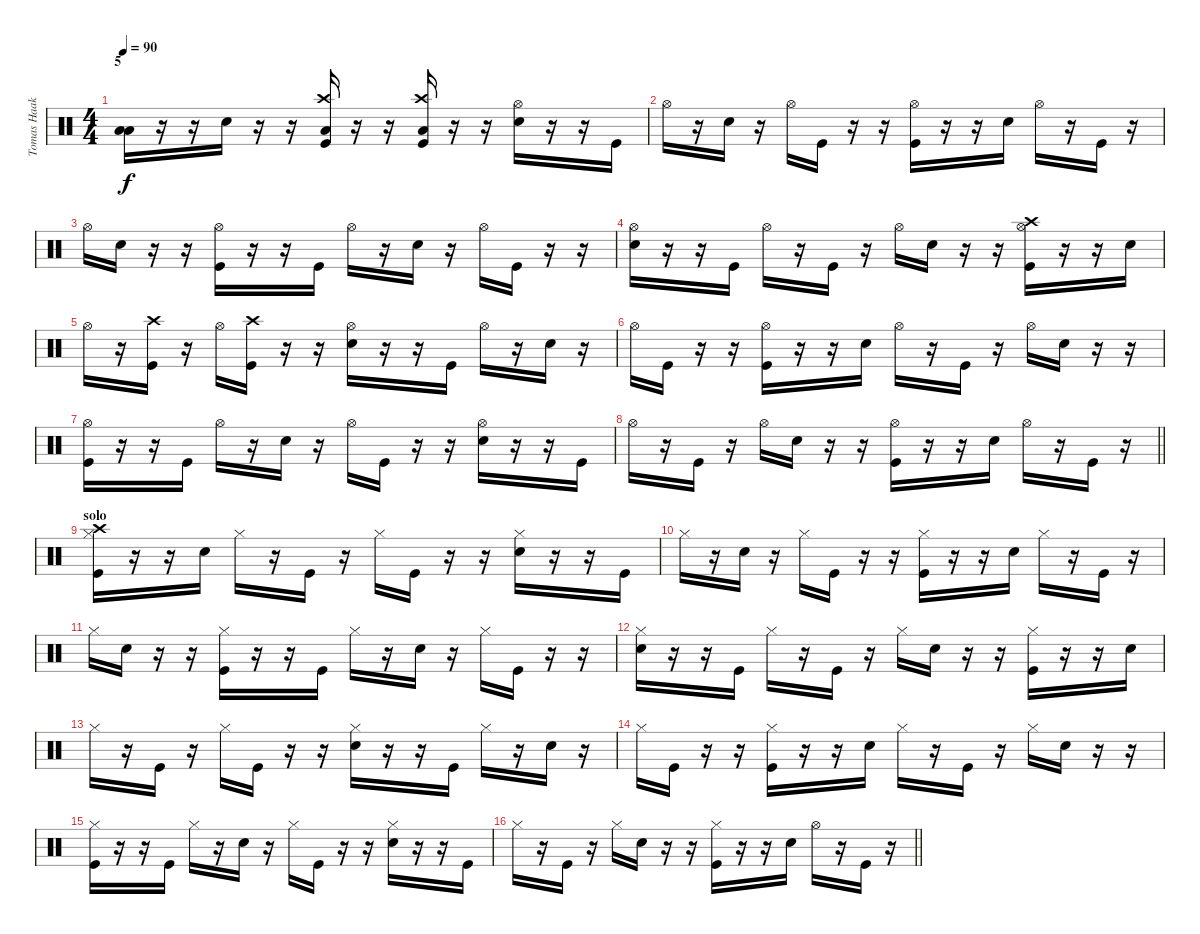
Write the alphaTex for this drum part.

\track ("Tomas Haake" "Tomas Haak") {instrument percussion}
\staff {score}
\articulation defaults
\ts (4 4)
\section ("" "5")
\tempo 90
\clef neutral
\ks c
("Low Tom (hit)" "Low Floor Tom (hit)").16{dy f} r.16 r.16 "Electric Snare (hit)".16 r.16 r.16 ("Crash high (hit)" "Low Floor Tom (hit)" "Kick (hit)").16 r.16 r.16 ("Crash high (hit)" "Low Floor Tom (hit)" "Kick (hit)").16 r.16 r.16 ("Hi-Hat (open)" "Electric Snare (hit)").16 r.16 r.16 "Kick (hit)".16 |
"Hi-Hat (open)".16 r.16 "Electric Snare (hit)".16 r.16 "Hi-Hat (open)".16 "Kick (hit)".16 r.16 r.16 ("Hi-Hat (open)" "Kick (hit)").16 r.16 r.16 "Electric Snare (hit)".16 "Hi-Hat (open)".16 r.16 "Kick (hit)".16 r.16 |
"Hi-Hat (open)".16 "Electric Snare (hit)".16 r.16 r.16 ("Hi-Hat (open)" "Kick (hit)").16 r.16 r.16 "Kick (hit)".16 "Hi-Hat (open)".16 r.16 "Electric Snare (hit)".16 r.16 "Hi-Hat (open)".16 "Kick (hit)".16 r.16 r.16 |
("Hi-Hat (open)" "Electric Snare (hit)").16 r.16 r.16 "Kick (hit)".16 "Hi-Hat (open)".16 r.16 "Kick (hit)".16 r.16 "Hi-Hat (open)".16 "Electric Snare (hit)".16 r.16 r.16 ("Crash high (hit)" "Hi-Hat (open)" "Kick (hit)").16 r.16 r.16 "Electric Snare (hit)".16 |
"Hi-Hat (open)".16 r.16 ("Crash high (hit)" "Kick (hit)").16 r.16 "Hi-Hat (open)".16 ("Crash high (hit)" "Kick (hit)").16 r.16 r.16 ("Hi-Hat (open)" "Electric Snare (hit)").16 r.16 r.16 "Kick (hit)".16 "Hi-Hat (open)".16 r.16 "Electric Snare (hit)".16 r.16 |
"Hi-Hat (open)".16 "Kick (hit)".16 r.16 r.16 ("Hi-Hat (open)" "Kick (hit)").16 r.16 r.16 "Electric Snare (hit)".16 "Hi-Hat (open)".16 r.16 "Kick (hit)".16 r.16 "Hi-Hat (open)".16 "Electric Snare (hit)".16 r.16 r.16 |
("Hi-Hat (open)" "Kick (hit)").16 r.16 r.16 "Kick (hit)".16 "Hi-Hat (open)".16 r.16 "Electric Snare (hit)".16 r.16 "Hi-Hat (open)".16 "Kick (hit)".16 r.16 r.16 ("Hi-Hat (open)" "Electric Snare (hit)").16 r.16 r.16 "Kick (hit)".16 |
\barLineRight lightlight "Hi-Hat (open)".16
r.16 "Kick (hit)".16 r.16 "Hi-Hat (open)".16 "Electric Snare (hit)".16 r.16 r.16 ("Hi-Hat (open)" "Kick (hit)").16 r.16 r.16 "Electric Snare (hit)".16 "Hi-Hat (open)".16 r.16 "Kick (hit)".16 r.16 |
\section ("" "solo")
("Crash high (hit)" "Hi-Hat (closed)" "Kick (hit)").16 r.16 r.16 "Electric Snare (hit)".16 "Hi-Hat (closed)".16 r.16 "Kick (hit)".16 r.16 "Hi-Hat (closed)".16 "Kick (hit)".16 r.16 r.16 ("Hi-Hat (closed)" "Electric Snare (hit)").16 r.16 r.16 "Kick (hit)".16 |
"Hi-Hat (closed)".16 r.16 "Electric Snare (hit)".16 r.16 "Hi-Hat (closed)".16 "Kick (hit)".16 r.16 r.16 ("Hi-Hat (closed)" "Kick (hit)").16 r.16 r.16 "Electric Snare (hit)".16 "Hi-Hat (closed)".16 r.16 "Kick (hit)".16 r.16 |
"Hi-Hat (closed)".16 "Electric Snare (hit)".16 r.16 r.16 ("Hi-Hat (closed)" "Kick (hit)").16 r.16 r.16 "Kick (hit)".16 "Hi-Hat (closed)".16 r.16 "Electric Snare (hit)".16 r.16 "Hi-Hat (closed)".16 "Kick (hit)".16 r.16 r.16 |
("Hi-Hat (closed)" "Electric Snare (hit)").16 r.16 r.16 "Kick (hit)".16 "Hi-Hat (closed)".16 r.16 "Kick (hit)".16 r.16 "Hi-Hat (closed)".16 "Electric Snare (hit)".16 r.16 r.16 ("Hi-Hat (closed)" "Kick (hit)").16 r.16 r.16 "Electric Snare (hit)".16 |
"Hi-Hat (closed)".16 r.16 "Kick (hit)".16 r.16 "Hi-Hat (closed)".16 "Kick (hit)".16 r.16 r.16 ("Hi-Hat (closed)" "Electric Snare (hit)").16 r.16 r.16 "Kick (hit)".16 "Hi-Hat (closed)".16 r.16 "Electric Snare (hit)".16 r.16 |
"Hi-Hat (closed)".16 "Kick (hit)".16 r.16 r.16 ("Hi-Hat (closed)" "Kick (hit)").16 r.16 r.16 "Electric Snare (hit)".16 "Hi-Hat (closed)".16 r.16 "Kick (hit)".16 r.16 "Hi-Hat (closed)".16 "Electric Snare (hit)".16 r.16 r.16 |
("Hi-Hat (closed)" "Kick (hit)").16 r.16 r.16 "Kick (hit)".16 "Hi-Hat (closed)".16 r.16 "Electric Snare (hit)".16 r.16 "Hi-Hat (closed)".16 "Kick (hit)".16 r.16 r.16 ("Hi-Hat (closed)" "Electric Snare (hit)").16 r.16 r.16 "Kick (hit)".16 |
\barLineRight lightlight "Hi-Hat (closed)".16
r.16 "Kick (hit)".16 r.16 "Hi-Hat (closed)".16 "Electric Snare (hit)".16 r.16 r.16 ("Hi-Hat (closed)" "Kick (hit)").16 r.16 r.16 "Electric Snare (hit)".16 "Hi-Hat (open)".16 r.16 "Kick (hit)".16 r.16
